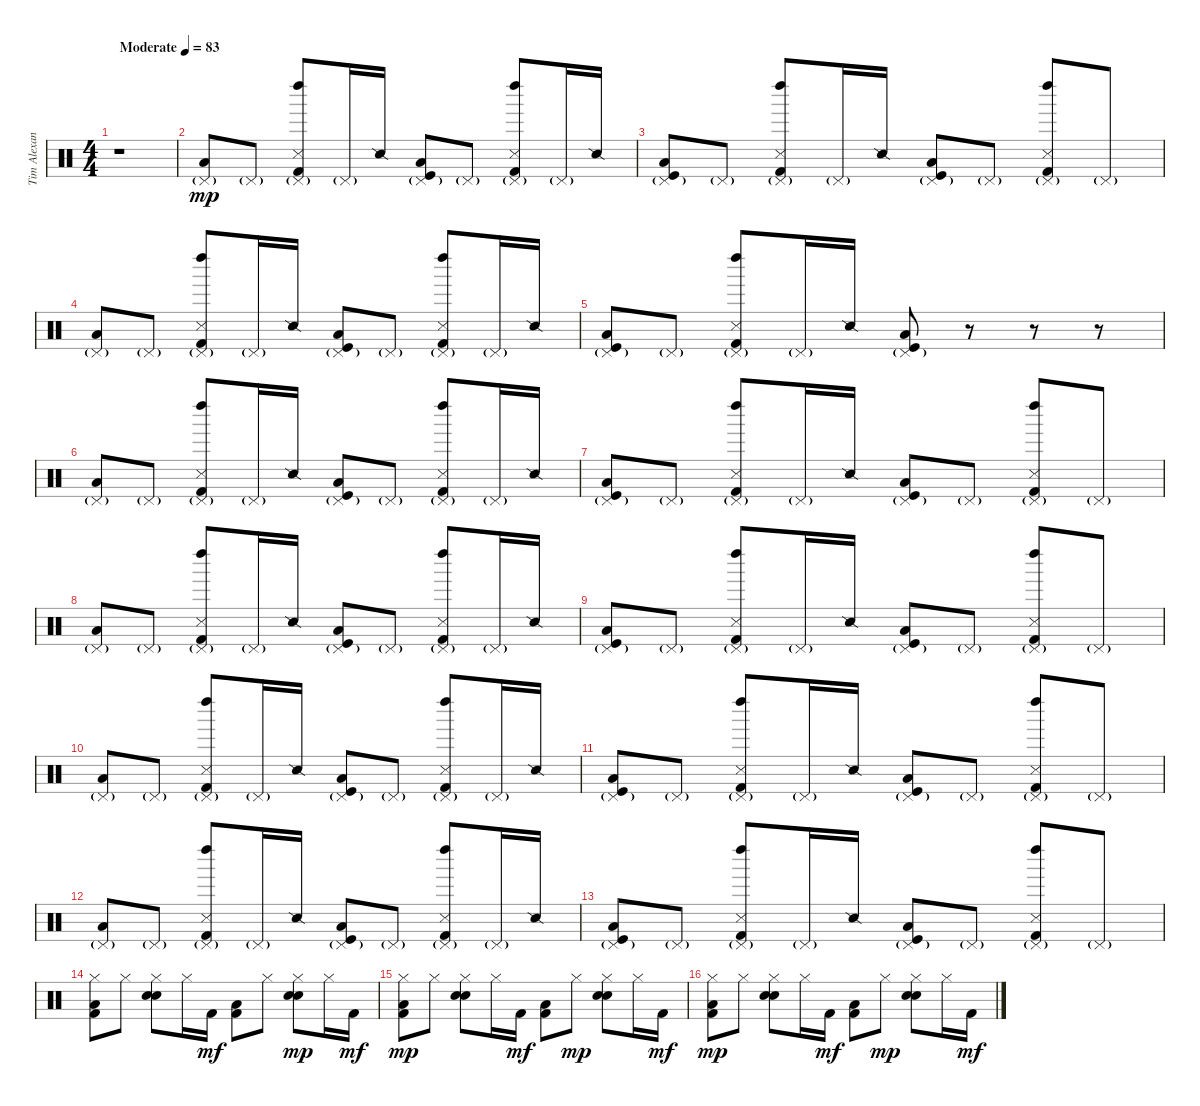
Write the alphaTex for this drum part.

\track ("Tim Alexander" "Tim Alexan") {instrument percussion}
\staff {score}
\articulation defaults
\ts (4 4)
\tempo (83 "Moderate")
\clef neutral
\ks c
r.1{dy mp} |
("Low Floor Tom (hit)" "Pedal Hi-Hat (hit)"{g}).8 "Pedal Hi-Hat (hit)"{g}.8 ("Left Maraca (hit)" "Metronome (hit)" "Kick (hit) 2" "Pedal Hi-Hat (hit)"{g}).8 "Pedal Hi-Hat (hit)"{g}.16 "Snare (side stick) 2".16 ("Low Floor Tom (hit)" "Kick (hit)" "Pedal Hi-Hat (hit)"{g}).8 "Pedal Hi-Hat (hit)"{g}.8 ("Left Maraca (hit)" "Metronome (hit)" "Kick (hit) 2" "Pedal Hi-Hat (hit)"{g}).8 "Pedal Hi-Hat (hit)"{g}.16 "Snare (side stick) 2".16 |
("Low Floor Tom (hit)" "Kick (hit)" "Pedal Hi-Hat (hit)"{g}).8 "Pedal Hi-Hat (hit)"{g}.8 ("Left Maraca (hit)" "Metronome (hit)" "Kick (hit) 2" "Pedal Hi-Hat (hit)"{g}).8 "Pedal Hi-Hat (hit)"{g}.16 "Snare (side stick) 2".16 ("Low Floor Tom (hit)" "Kick (hit)" "Pedal Hi-Hat (hit)"{g}).8 "Pedal Hi-Hat (hit)"{g}.8 ("Left Maraca (hit)" "Metronome (hit)" "Kick (hit) 2" "Pedal Hi-Hat (hit)"{g}).8 "Pedal Hi-Hat (hit)"{g}.8 |
("Low Floor Tom (hit)" "Pedal Hi-Hat (hit)"{g}).8 "Pedal Hi-Hat (hit)"{g}.8 ("Left Maraca (hit)" "Metronome (hit)" "Kick (hit) 2" "Pedal Hi-Hat (hit)"{g}).8 "Pedal Hi-Hat (hit)"{g}.16 "Snare (side stick) 2".16 ("Low Floor Tom (hit)" "Kick (hit)" "Pedal Hi-Hat (hit)"{g}).8 "Pedal Hi-Hat (hit)"{g}.8 ("Left Maraca (hit)" "Metronome (hit)" "Kick (hit) 2" "Pedal Hi-Hat (hit)"{g}).8 "Pedal Hi-Hat (hit)"{g}.16 "Snare (side stick) 2".16 |
("Low Floor Tom (hit)" "Kick (hit)" "Pedal Hi-Hat (hit)"{g}).8 "Pedal Hi-Hat (hit)"{g}.8 ("Left Maraca (hit)" "Metronome (hit)" "Kick (hit) 2" "Pedal Hi-Hat (hit)"{g}).8 "Pedal Hi-Hat (hit)"{g}.16 "Snare (side stick) 2".16 ("Low Floor Tom (hit)" "Kick (hit)" "Pedal Hi-Hat (hit)"{g}).8 r.8 r.8 r.8 |
("Low Floor Tom (hit)" "Pedal Hi-Hat (hit)"{g}).8 "Pedal Hi-Hat (hit)"{g}.8 ("Left Maraca (hit)" "Metronome (hit)" "Kick (hit) 2" "Pedal Hi-Hat (hit)"{g}).8 "Pedal Hi-Hat (hit)"{g}.16 "Snare (side stick) 2".16 ("Low Floor Tom (hit)" "Kick (hit)" "Pedal Hi-Hat (hit)"{g}).8 "Pedal Hi-Hat (hit)"{g}.8 ("Left Maraca (hit)" "Metronome (hit)" "Kick (hit) 2" "Pedal Hi-Hat (hit)"{g}).8 "Pedal Hi-Hat (hit)"{g}.16 "Snare (side stick) 2".16 |
("Low Floor Tom (hit)" "Kick (hit)" "Pedal Hi-Hat (hit)"{g}).8 "Pedal Hi-Hat (hit)"{g}.8 ("Left Maraca (hit)" "Metronome (hit)" "Kick (hit) 2" "Pedal Hi-Hat (hit)"{g}).8 "Pedal Hi-Hat (hit)"{g}.16 "Snare (side stick) 2".16 ("Low Floor Tom (hit)" "Kick (hit)" "Pedal Hi-Hat (hit)"{g}).8 "Pedal Hi-Hat (hit)"{g}.8 ("Left Maraca (hit)" "Metronome (hit)" "Kick (hit) 2" "Pedal Hi-Hat (hit)"{g}).8 "Pedal Hi-Hat (hit)"{g}.8 |
("Low Floor Tom (hit)" "Pedal Hi-Hat (hit)"{g}).8 "Pedal Hi-Hat (hit)"{g}.8 ("Left Maraca (hit)" "Metronome (hit)" "Kick (hit) 2" "Pedal Hi-Hat (hit)"{g}).8 "Pedal Hi-Hat (hit)"{g}.16 "Snare (side stick) 2".16 ("Low Floor Tom (hit)" "Kick (hit)" "Pedal Hi-Hat (hit)"{g}).8 "Pedal Hi-Hat (hit)"{g}.8 ("Left Maraca (hit)" "Metronome (hit)" "Kick (hit) 2" "Pedal Hi-Hat (hit)"{g}).8 "Pedal Hi-Hat (hit)"{g}.16 "Snare (side stick) 2".16 |
("Low Floor Tom (hit)" "Kick (hit)" "Pedal Hi-Hat (hit)"{g}).8 "Pedal Hi-Hat (hit)"{g}.8 ("Left Maraca (hit)" "Metronome (hit)" "Kick (hit) 2" "Pedal Hi-Hat (hit)"{g}).8 "Pedal Hi-Hat (hit)"{g}.16 "Snare (side stick) 2".16 ("Low Floor Tom (hit)" "Kick (hit)" "Pedal Hi-Hat (hit)"{g}).8 "Pedal Hi-Hat (hit)"{g}.8 ("Left Maraca (hit)" "Metronome (hit)" "Kick (hit) 2" "Pedal Hi-Hat (hit)"{g}).8 "Pedal Hi-Hat (hit)"{g}.8 |
("Low Floor Tom (hit)" "Pedal Hi-Hat (hit)"{g}).8 "Pedal Hi-Hat (hit)"{g}.8 ("Left Maraca (hit)" "Metronome (hit)" "Kick (hit) 2" "Pedal Hi-Hat (hit)"{g}).8 "Pedal Hi-Hat (hit)"{g}.16 "Snare (side stick) 2".16 ("Low Floor Tom (hit)" "Kick (hit)" "Pedal Hi-Hat (hit)"{g}).8 "Pedal Hi-Hat (hit)"{g}.8 ("Left Maraca (hit)" "Metronome (hit)" "Kick (hit) 2" "Pedal Hi-Hat (hit)"{g}).8 "Pedal Hi-Hat (hit)"{g}.16 "Snare (side stick) 2".16 |
("Low Floor Tom (hit)" "Kick (hit)" "Pedal Hi-Hat (hit)"{g}).8 "Pedal Hi-Hat (hit)"{g}.8 ("Left Maraca (hit)" "Metronome (hit)" "Kick (hit) 2" "Pedal Hi-Hat (hit)"{g}).8 "Pedal Hi-Hat (hit)"{g}.16 "Snare (side stick) 2".16 ("Low Floor Tom (hit)" "Kick (hit)" "Pedal Hi-Hat (hit)"{g}).8 "Pedal Hi-Hat (hit)"{g}.8 ("Left Maraca (hit)" "Metronome (hit)" "Kick (hit) 2" "Pedal Hi-Hat (hit)"{g}).8 "Pedal Hi-Hat (hit)"{g}.8 |
("Low Floor Tom (hit)" "Pedal Hi-Hat (hit)"{g}).8 "Pedal Hi-Hat (hit)"{g}.8 ("Left Maraca (hit)" "Metronome (hit)" "Kick (hit) 2" "Pedal Hi-Hat (hit)"{g}).8 "Pedal Hi-Hat (hit)"{g}.16 "Snare (side stick) 2".16 ("Low Floor Tom (hit)" "Kick (hit)" "Pedal Hi-Hat (hit)"{g}).8 "Pedal Hi-Hat (hit)"{g}.8 ("Left Maraca (hit)" "Metronome (hit)" "Kick (hit) 2" "Pedal Hi-Hat (hit)"{g}).8 "Pedal Hi-Hat (hit)"{g}.16 "Snare (side stick) 2".16 |
("Low Floor Tom (hit)" "Kick (hit)" "Pedal Hi-Hat (hit)"{g}).8 "Pedal Hi-Hat (hit)"{g}.8 ("Left Maraca (hit)" "Metronome (hit)" "Kick (hit) 2" "Pedal Hi-Hat (hit)"{g}).8 "Pedal Hi-Hat (hit)"{g}.16 "Snare (side stick) 2".16 ("Low Floor Tom (hit)" "Kick (hit)" "Pedal Hi-Hat (hit)"{g}).8 "Pedal Hi-Hat (hit)"{g}.8 ("Left Maraca (hit)" "Metronome (hit)" "Kick (hit) 2" "Pedal Hi-Hat (hit)"{g}).8 "Pedal Hi-Hat (hit)"{g}.8 |
("Kick (hit) 2" "Low Floor Tom (hit)" "Hi-Hat (closed)").8 "Hi-Hat (closed)".8 ("Hand Clap (hit)" "Electric Snare (hit)" "Hi-Hat (closed)").8 "Hi-Hat (closed)".16 "Kick (hit) 2".16{dy mf} ("Kick (hit) 2" "Low Floor Tom (hit)").8 "Hi-Hat (closed)".8 ("Hand Clap (hit)" "Electric Snare (hit)" "Hi-Hat (closed)").8{dy mp} "Hi-Hat (closed)".16 "Kick (hit) 2".16{dy mf} |
("Kick (hit) 2" "Low Floor Tom (hit)" "Hi-Hat (closed)").8{dy mp} "Hi-Hat (closed)".8 ("Hand Clap (hit)" "Electric Snare (hit)" "Hi-Hat (closed)").8 "Hi-Hat (closed)".16 "Kick (hit) 2".16{dy mf} ("Kick (hit) 2" "Low Floor Tom (hit)").8 "Hi-Hat (closed)".8{dy mp} ("Hand Clap (hit)" "Electric Snare (hit)" "Hi-Hat (closed)").8 "Hi-Hat (closed)".16 "Kick (hit) 2".16{dy mf} |
("Kick (hit) 2" "Low Floor Tom (hit)" "Hi-Hat (closed)").8{dy mp} "Hi-Hat (closed)".8 ("Hand Clap (hit)" "Electric Snare (hit)" "Hi-Hat (closed)").8 "Hi-Hat (closed)".16 "Kick (hit) 2".16{dy mf} ("Kick (hit) 2" "Low Floor Tom (hit)").8 "Hi-Hat (closed)".8{dy mp} ("Hand Clap (hit)" "Electric Snare (hit)" "Hi-Hat (closed)").8 "Hi-Hat (closed)".16 "Kick (hit) 2".16{dy mf}
